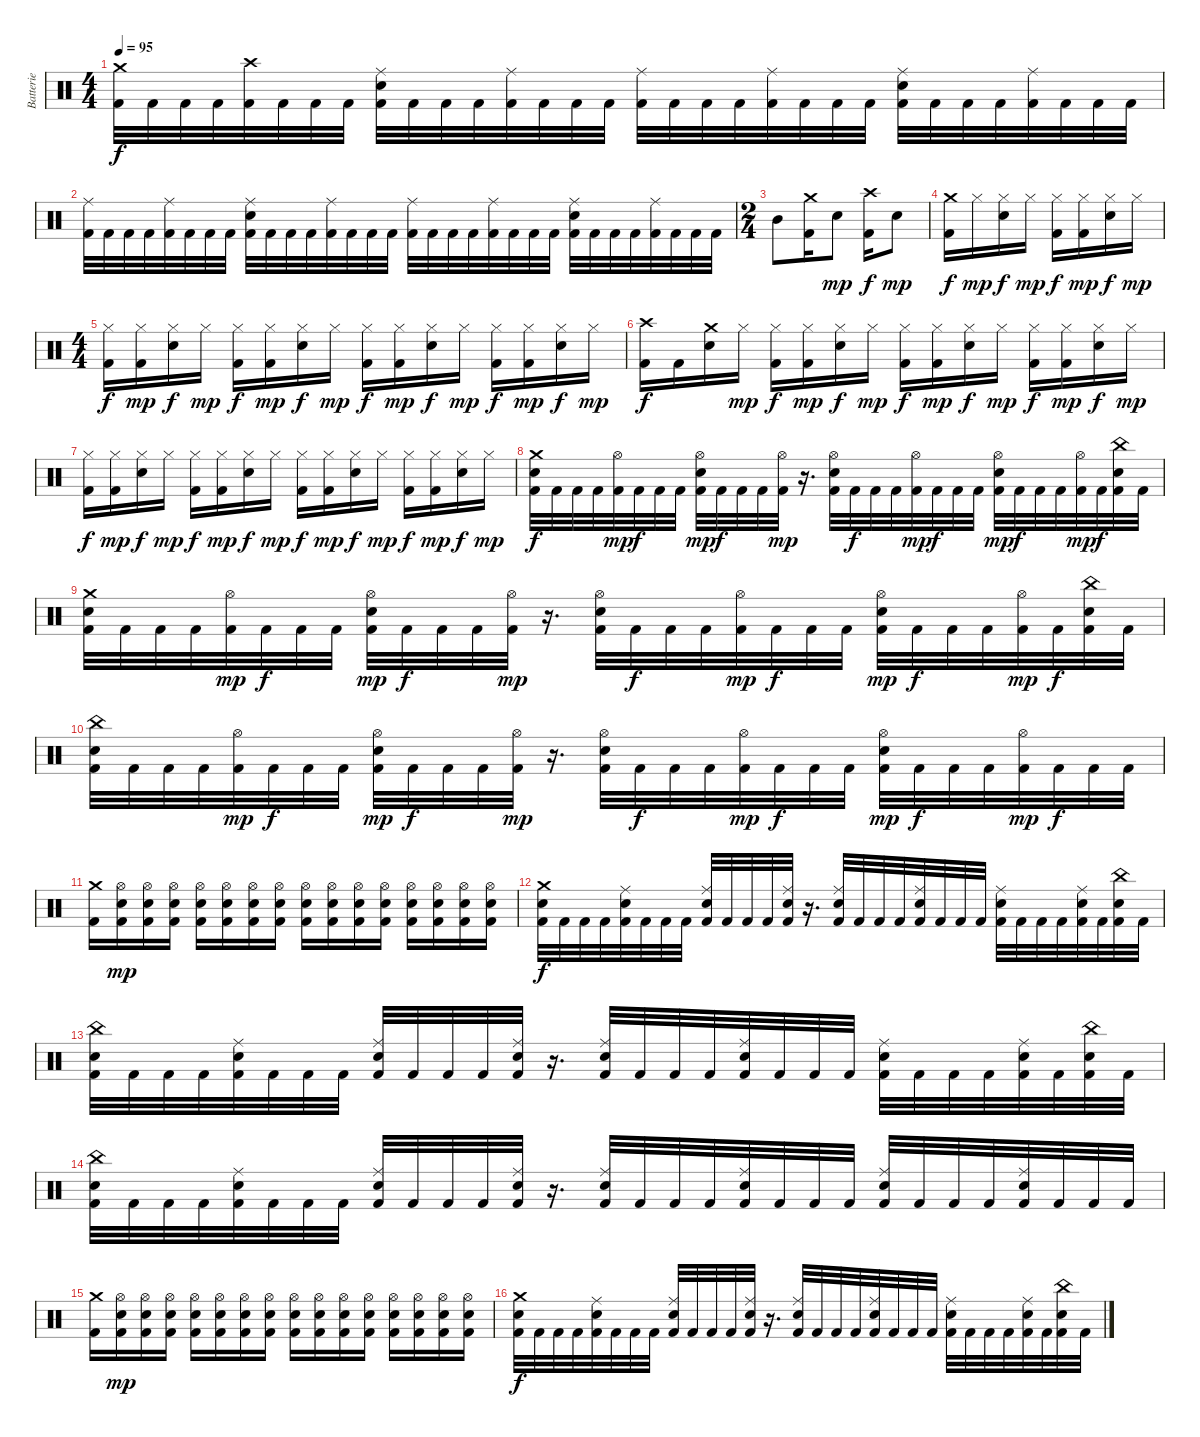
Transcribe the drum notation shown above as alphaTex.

\track ("Batterie" "Batterie") {instrument percussion}
\staff {score}
\articulation defaults
\ts (4 4)
\tempo 95
\clef neutral
\ks c
("Crash medium (hit)" "Kick (hit) 2").32{dy f} "Kick (hit) 2".32 "Kick (hit) 2".32 "Kick (hit) 2".32 ("Crash high (hit)" "Kick (hit) 2").32 "Kick (hit) 2".32 "Kick (hit) 2".32 "Kick (hit) 2".32 ("Ride (middle)" "Electric Snare (hit)" "Kick (hit) 2").32 "Kick (hit) 2".32 "Kick (hit) 2".32 "Kick (hit) 2".32 ("Ride (middle)" "Kick (hit) 2").32 "Kick (hit) 2".32 "Kick (hit) 2".32 "Kick (hit) 2".32 ("Ride (middle)" "Kick (hit) 2").32 "Kick (hit) 2".32 "Kick (hit) 2".32 "Kick (hit) 2".32 ("Ride (middle)" "Kick (hit) 2").32 "Kick (hit) 2".32 "Kick (hit) 2".32 "Kick (hit) 2".32 ("Ride (middle)" "Electric Snare (hit)" "Kick (hit) 2").32 "Kick (hit) 2".32 "Kick (hit) 2".32 "Kick (hit) 2".32 ("Ride (middle)" "Kick (hit) 2").32 "Kick (hit) 2".32 "Kick (hit) 2".32 "Kick (hit) 2".32 |
("Ride (middle)" "Kick (hit) 2").32 "Kick (hit) 2".32 "Kick (hit) 2".32 "Kick (hit) 2".32 ("Ride (middle)" "Kick (hit) 2").32 "Kick (hit) 2".32 "Kick (hit) 2".32 "Kick (hit) 2".32 ("Ride (middle)" "Electric Snare (hit)" "Kick (hit) 2").32 "Kick (hit) 2".32 "Kick (hit) 2".32 "Kick (hit) 2".32 ("Ride (middle)" "Kick (hit) 2").32 "Kick (hit) 2".32 "Kick (hit) 2".32 "Kick (hit) 2".32 ("Ride (middle)" "Kick (hit) 2").32 "Kick (hit) 2".32 "Kick (hit) 2".32 "Kick (hit) 2".32 ("Ride (middle)" "Kick (hit) 2").32 "Kick (hit) 2".32 "Kick (hit) 2".32 "Kick (hit) 2".32 ("Ride (middle)" "Electric Snare (hit)" "Kick (hit) 2").32 "Kick (hit) 2".32 "Kick (hit) 2".32 "Kick (hit) 2".32 ("Ride (middle)" "Kick (hit) 2").32 "Kick (hit) 2".32 "Kick (hit) 2".32 "Kick (hit) 2".32 |
\ts (2 4)
"Mid Tom (hit)".8 ("Crash medium (hit)" "Kick (hit) 2").16 "Electric Snare (hit)".8{dy mp} ("Crash high (hit)" "Kick (hit) 2").16{dy f} "Electric Snare (hit)".8{dy mp} |
("Crash medium (hit)" "Kick (hit) 2").16{dy f} "Hi-Hat (closed)".16{dy mp} ("Hi-Hat (closed)" "Electric Snare (hit)").16{dy f} "Hi-Hat (closed)".16{dy mp} ("Hi-Hat (closed)" "Kick (hit) 2").16{dy f} ("Hi-Hat (closed)" "Kick (hit) 2").16{dy mp} ("Hi-Hat (closed)" "Electric Snare (hit)").16{dy f} "Hi-Hat (closed)".16{dy mp} |
\ts (4 4)
("Hi-Hat (closed)" "Kick (hit) 2").16{dy f} ("Hi-Hat (closed)" "Kick (hit) 2").16{dy mp} ("Hi-Hat (closed)" "Electric Snare (hit)").16{dy f} "Hi-Hat (closed)".16{dy mp} ("Hi-Hat (closed)" "Kick (hit) 2").16{dy f} ("Hi-Hat (closed)" "Kick (hit) 2").16{dy mp} ("Hi-Hat (closed)" "Electric Snare (hit)").16{dy f} "Hi-Hat (closed)".16{dy mp} ("Hi-Hat (closed)" "Kick (hit) 2").16{dy f} ("Hi-Hat (closed)" "Kick (hit) 2").16{dy mp} ("Hi-Hat (closed)" "Electric Snare (hit)").16{dy f} "Hi-Hat (closed)".16{dy mp} ("Hi-Hat (closed)" "Kick (hit) 2").16{dy f} ("Hi-Hat (closed)" "Kick (hit) 2").16{dy mp} ("Hi-Hat (closed)" "Electric Snare (hit)").16{dy f} "Hi-Hat (closed)".16{dy mp} |
("Crash high (hit)" "Kick (hit) 2").16{dy f} "Kick (hit) 2".16 ("Crash medium (hit)" "Electric Snare (hit)").16 "Hi-Hat (closed)".16{dy mp} ("Hi-Hat (closed)" "Kick (hit) 2").16{dy f} ("Hi-Hat (closed)" "Kick (hit) 2").16{dy mp} ("Hi-Hat (closed)" "Electric Snare (hit)").16{dy f} "Hi-Hat (closed)".16{dy mp} ("Hi-Hat (closed)" "Kick (hit) 2").16{dy f} ("Hi-Hat (closed)" "Kick (hit) 2").16{dy mp} ("Hi-Hat (closed)" "Electric Snare (hit)").16{dy f} "Hi-Hat (closed)".16{dy mp} ("Hi-Hat (closed)" "Kick (hit) 2").16{dy f} ("Hi-Hat (closed)" "Kick (hit) 2").16{dy mp} ("Hi-Hat (closed)" "Electric Snare (hit)").16{dy f} "Hi-Hat (closed)".16{dy mp} |
("Hi-Hat (closed)" "Kick (hit) 2").16{dy f} ("Hi-Hat (closed)" "Kick (hit) 2").16{dy mp} ("Hi-Hat (closed)" "Electric Snare (hit)").16{dy f} "Hi-Hat (closed)".16{dy mp} ("Hi-Hat (closed)" "Kick (hit) 2").16{dy f} ("Hi-Hat (closed)" "Kick (hit) 2").16{dy mp} ("Hi-Hat (closed)" "Electric Snare (hit)").16{dy f} "Hi-Hat (closed)".16{dy mp} ("Hi-Hat (closed)" "Kick (hit) 2").16{dy f} ("Hi-Hat (closed)" "Kick (hit) 2").16{dy mp} ("Hi-Hat (closed)" "Electric Snare (hit)").16{dy f} "Hi-Hat (closed)".16{dy mp} ("Hi-Hat (closed)" "Kick (hit) 2").16{dy f} ("Hi-Hat (closed)" "Kick (hit) 2").16{dy mp} ("Hi-Hat (closed)" "Electric Snare (hit)").16{dy f} "Hi-Hat (closed)".16{dy mp} |
("Crash medium (hit)" "Electric Snare (hit)" "Kick (hit) 2").32{dy f} "Kick (hit) 2".32 "Kick (hit) 2".32 "Kick (hit) 2".32 ("Hi-Hat (open)" "Kick (hit) 2").32{dy mp} "Kick (hit) 2".32{dy f} "Kick (hit) 2".32 "Kick (hit) 2".32 ("Hi-Hat (open)" "Electric Snare (hit)" "Kick (hit) 2").32{dy mp} "Kick (hit) 2".32{dy f} "Kick (hit) 2".32 "Kick (hit) 2".32 ("Hi-Hat (open)" "Kick (hit) 2").32{dy mp} r.16{d} ("Hi-Hat (open)" "Electric Snare (hit)" "Kick (hit) 2").32 "Kick (hit) 2".32{dy f} "Kick (hit) 2".32 "Kick (hit) 2".32 ("Hi-Hat (open)" "Kick (hit) 2").32{dy mp} "Kick (hit) 2".32{dy f} "Kick (hit) 2".32 "Kick (hit) 2".32 ("Hi-Hat (open)" "Electric Snare (hit)" "Kick (hit) 2").32{dy mp} "Kick (hit) 2".32{dy f} "Kick (hit) 2".32 "Kick (hit) 2".32 ("Hi-Hat (open)" "Kick (hit) 2").32{dy mp} "Kick (hit) 2".32{dy f} ("China (hit)" "Electric Snare (hit)" "Kick (hit) 2").32 "Kick (hit) 2".32 |
("Crash medium (hit)" "Electric Snare (hit)" "Kick (hit) 2").32 "Kick (hit) 2".32 "Kick (hit) 2".32 "Kick (hit) 2".32 ("Hi-Hat (open)" "Kick (hit) 2").32{dy mp} "Kick (hit) 2".32{dy f} "Kick (hit) 2".32 "Kick (hit) 2".32 ("Hi-Hat (open)" "Electric Snare (hit)" "Kick (hit) 2").32{dy mp} "Kick (hit) 2".32{dy f} "Kick (hit) 2".32 "Kick (hit) 2".32 ("Hi-Hat (open)" "Kick (hit) 2").32{dy mp} r.16{d} ("Hi-Hat (open)" "Electric Snare (hit)" "Kick (hit) 2").32 "Kick (hit) 2".32{dy f} "Kick (hit) 2".32 "Kick (hit) 2".32 ("Hi-Hat (open)" "Kick (hit) 2").32{dy mp} "Kick (hit) 2".32{dy f} "Kick (hit) 2".32 "Kick (hit) 2".32 ("Hi-Hat (open)" "Electric Snare (hit)" "Kick (hit) 2").32{dy mp} "Kick (hit) 2".32{dy f} "Kick (hit) 2".32 "Kick (hit) 2".32 ("Hi-Hat (open)" "Kick (hit) 2").32{dy mp} "Kick (hit) 2".32{dy f} ("China (hit)" "Electric Snare (hit)" "Kick (hit) 2").32 "Kick (hit) 2".32 |
("China (hit)" "Electric Snare (hit)" "Kick (hit) 2").32 "Kick (hit) 2".32 "Kick (hit) 2".32 "Kick (hit) 2".32 ("Hi-Hat (open)" "Kick (hit) 2").32{dy mp} "Kick (hit) 2".32{dy f} "Kick (hit) 2".32 "Kick (hit) 2".32 ("Hi-Hat (open)" "Electric Snare (hit)" "Kick (hit) 2").32{dy mp} "Kick (hit) 2".32{dy f} "Kick (hit) 2".32 "Kick (hit) 2".32 ("Hi-Hat (open)" "Kick (hit) 2").32{dy mp} r.16{d} ("Hi-Hat (open)" "Electric Snare (hit)" "Kick (hit) 2").32 "Kick (hit) 2".32{dy f} "Kick (hit) 2".32 "Kick (hit) 2".32 ("Hi-Hat (open)" "Kick (hit) 2").32{dy mp} "Kick (hit) 2".32{dy f} "Kick (hit) 2".32 "Kick (hit) 2".32 ("Hi-Hat (open)" "Electric Snare (hit)" "Kick (hit) 2").32{dy mp} "Kick (hit) 2".32{dy f} "Kick (hit) 2".32 "Kick (hit) 2".32 ("Hi-Hat (open)" "Kick (hit) 2").32{dy mp} "Kick (hit) 2".32{dy f} "Kick (hit) 2".32 "Kick (hit) 2".32 |
("Crash medium (hit)" "Kick (hit) 2").16 ("Hi-Hat (open)" "Electric Snare (hit)" "Kick (hit) 2").16{dy mp} ("Hi-Hat (open)" "Electric Snare (hit)" "Kick (hit) 2").16 ("Hi-Hat (open)" "Electric Snare (hit)" "Kick (hit) 2").16 ("Hi-Hat (open)" "Electric Snare (hit)" "Kick (hit) 2").16 ("Hi-Hat (open)" "Electric Snare (hit)" "Kick (hit) 2").16 ("Hi-Hat (open)" "Electric Snare (hit)" "Kick (hit) 2").16 ("Hi-Hat (open)" "Electric Snare (hit)" "Kick (hit) 2").16 ("Hi-Hat (open)" "Electric Snare (hit)" "Kick (hit) 2").16 ("Hi-Hat (open)" "Electric Snare (hit)" "Kick (hit) 2").16 ("Hi-Hat (open)" "Electric Snare (hit)" "Kick (hit) 2").16 ("Hi-Hat (open)" "Electric Snare (hit)" "Kick (hit) 2").16 ("Hi-Hat (open)" "Electric Snare (hit)" "Kick (hit) 2").16 ("Hi-Hat (open)" "Electric Snare (hit)" "Kick (hit) 2").16 ("Hi-Hat (open)" "Electric Snare (hit)" "Kick (hit) 2").16 ("Hi-Hat (open)" "Electric Snare (hit)" "Kick (hit) 2").16 |
("Crash medium (hit)" "Electric Snare (hit)" "Kick (hit) 2").32{dy f} "Kick (hit) 2".32 "Kick (hit) 2".32 "Kick (hit) 2".32 ("Ride (middle)" "Electric Snare (hit)" "Kick (hit) 2").32 "Kick (hit) 2".32 "Kick (hit) 2".32 "Kick (hit) 2".32 ("Ride (middle)" "Electric Snare (hit)" "Kick (hit) 2").32 "Kick (hit) 2".32 "Kick (hit) 2".32 "Kick (hit) 2".32 ("Ride (middle)" "Electric Snare (hit)" "Kick (hit) 2").32 r.16{d} ("Ride (middle)" "Electric Snare (hit)" "Kick (hit) 2").32 "Kick (hit) 2".32 "Kick (hit) 2".32 "Kick (hit) 2".32 ("Ride (middle)" "Electric Snare (hit)" "Kick (hit) 2").32 "Kick (hit) 2".32 "Kick (hit) 2".32 "Kick (hit) 2".32 ("Ride (middle)" "Electric Snare (hit)" "Kick (hit) 2").32 "Kick (hit) 2".32 "Kick (hit) 2".32 "Kick (hit) 2".32 ("Ride (middle)" "Electric Snare (hit)" "Kick (hit) 2").32 "Kick (hit) 2".32 ("China (hit)" "Electric Snare (hit)" "Kick (hit) 2").32 "Kick (hit) 2".32 |
("China (hit)" "Electric Snare (hit)" "Kick (hit) 2").32 "Kick (hit) 2".32 "Kick (hit) 2".32 "Kick (hit) 2".32 ("Ride (middle)" "Electric Snare (hit)" "Kick (hit) 2").32 "Kick (hit) 2".32 "Kick (hit) 2".32 "Kick (hit) 2".32 ("Ride (middle)" "Electric Snare (hit)" "Kick (hit) 2").32 "Kick (hit) 2".32 "Kick (hit) 2".32 "Kick (hit) 2".32 ("Ride (middle)" "Electric Snare (hit)" "Kick (hit) 2").32 r.16{d} ("Ride (middle)" "Electric Snare (hit)" "Kick (hit) 2").32 "Kick (hit) 2".32 "Kick (hit) 2".32 "Kick (hit) 2".32 ("Ride (middle)" "Electric Snare (hit)" "Kick (hit) 2").32 "Kick (hit) 2".32 "Kick (hit) 2".32 "Kick (hit) 2".32 ("Ride (middle)" "Electric Snare (hit)" "Kick (hit) 2").32 "Kick (hit) 2".32 "Kick (hit) 2".32 "Kick (hit) 2".32 ("Ride (middle)" "Electric Snare (hit)" "Kick (hit) 2").32 "Kick (hit) 2".32 ("China (hit)" "Electric Snare (hit)" "Kick (hit) 2").32 "Kick (hit) 2".32 |
("China (hit)" "Electric Snare (hit)" "Kick (hit) 2").32 "Kick (hit) 2".32 "Kick (hit) 2".32 "Kick (hit) 2".32 ("Ride (middle)" "Electric Snare (hit)" "Kick (hit) 2").32 "Kick (hit) 2".32 "Kick (hit) 2".32 "Kick (hit) 2".32 ("Ride (middle)" "Electric Snare (hit)" "Kick (hit) 2").32 "Kick (hit) 2".32 "Kick (hit) 2".32 "Kick (hit) 2".32 ("Ride (middle)" "Electric Snare (hit)" "Kick (hit) 2").32 r.16{d} ("Ride (middle)" "Electric Snare (hit)" "Kick (hit) 2").32 "Kick (hit) 2".32 "Kick (hit) 2".32 "Kick (hit) 2".32 ("Ride (middle)" "Electric Snare (hit)" "Kick (hit) 2").32 "Kick (hit) 2".32 "Kick (hit) 2".32 "Kick (hit) 2".32 ("Ride (middle)" "Electric Snare (hit)" "Kick (hit) 2").32 "Kick (hit) 2".32 "Kick (hit) 2".32 "Kick (hit) 2".32 ("Ride (middle)" "Electric Snare (hit)" "Kick (hit) 2").32 "Kick (hit) 2".32 "Kick (hit) 2".32 "Kick (hit) 2".32 |
("Crash medium (hit)" "Kick (hit) 2").16 ("Hi-Hat (open)" "Electric Snare (hit)" "Kick (hit) 2").16{dy mp} ("Hi-Hat (open)" "Electric Snare (hit)" "Kick (hit) 2").16 ("Hi-Hat (open)" "Electric Snare (hit)" "Kick (hit) 2").16 ("Hi-Hat (open)" "Electric Snare (hit)" "Kick (hit) 2").16 ("Hi-Hat (open)" "Electric Snare (hit)" "Kick (hit) 2").16 ("Hi-Hat (open)" "Electric Snare (hit)" "Kick (hit) 2").16 ("Hi-Hat (open)" "Electric Snare (hit)" "Kick (hit) 2").16 ("Hi-Hat (open)" "Electric Snare (hit)" "Kick (hit) 2").16 ("Hi-Hat (open)" "Electric Snare (hit)" "Kick (hit) 2").16 ("Hi-Hat (open)" "Electric Snare (hit)" "Kick (hit) 2").16 ("Hi-Hat (open)" "Electric Snare (hit)" "Kick (hit) 2").16 ("Hi-Hat (open)" "Electric Snare (hit)" "Kick (hit) 2").16 ("Hi-Hat (open)" "Electric Snare (hit)" "Kick (hit) 2").16 ("Hi-Hat (open)" "Electric Snare (hit)" "Kick (hit) 2").16 ("Hi-Hat (open)" "Electric Snare (hit)" "Kick (hit) 2").16 |
("Crash medium (hit)" "Electric Snare (hit)" "Kick (hit) 2").32{dy f} "Kick (hit) 2".32 "Kick (hit) 2".32 "Kick (hit) 2".32 ("Ride (middle)" "Electric Snare (hit)" "Kick (hit) 2").32 "Kick (hit) 2".32 "Kick (hit) 2".32 "Kick (hit) 2".32 ("Ride (middle)" "Electric Snare (hit)" "Kick (hit) 2").32 "Kick (hit) 2".32 "Kick (hit) 2".32 "Kick (hit) 2".32 ("Ride (middle)" "Electric Snare (hit)" "Kick (hit) 2").32 r.16{d} ("Ride (middle)" "Electric Snare (hit)" "Kick (hit) 2").32 "Kick (hit) 2".32 "Kick (hit) 2".32 "Kick (hit) 2".32 ("Ride (middle)" "Electric Snare (hit)" "Kick (hit) 2").32 "Kick (hit) 2".32 "Kick (hit) 2".32 "Kick (hit) 2".32 ("Ride (middle)" "Electric Snare (hit)" "Kick (hit) 2").32 "Kick (hit) 2".32 "Kick (hit) 2".32 "Kick (hit) 2".32 ("Ride (middle)" "Electric Snare (hit)" "Kick (hit) 2").32 "Kick (hit) 2".32 ("China (hit)" "Electric Snare (hit)" "Kick (hit) 2").32 "Kick (hit) 2".32
